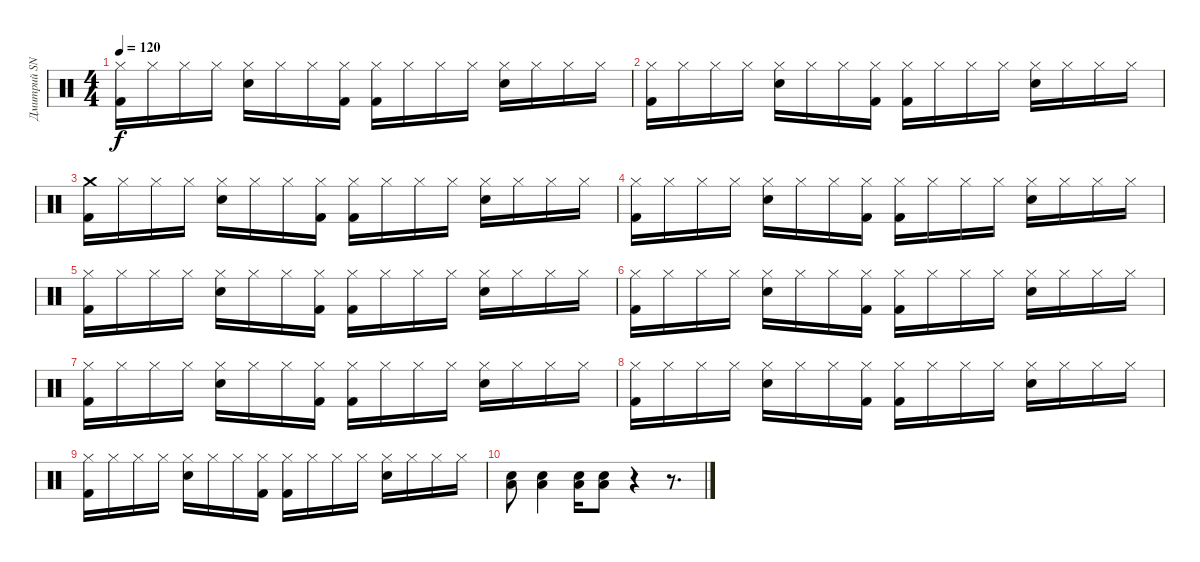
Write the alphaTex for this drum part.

\track ("Дмитрий SNAKE Хакимов" "Дмитрий SN") {instrument percussion}
\staff {score}
\articulation defaults
\ts (4 4)
\tempo 120
\clef neutral
\ks c
("Hi-Hat (closed)" "Kick (hit) 2").16{dy f} "Hi-Hat (closed)".16 "Hi-Hat (closed)".16 "Hi-Hat (closed)".16 ("Hi-Hat (closed)" "Snare (hit) 2").16 "Hi-Hat (closed)".16 "Hi-Hat (closed)".16 ("Hi-Hat (closed)" "Kick (hit) 2").16 ("Hi-Hat (closed)" "Kick (hit) 2").16 "Hi-Hat (closed)".16 "Hi-Hat (closed)".16 "Hi-Hat (closed)".16 ("Hi-Hat (closed)" "Snare (hit) 2").16 "Hi-Hat (closed)".16 "Hi-Hat (closed)".16 "Hi-Hat (closed)".16 |
("Hi-Hat (closed)" "Kick (hit) 2").16 "Hi-Hat (closed)".16 "Hi-Hat (closed)".16 "Hi-Hat (closed)".16 ("Hi-Hat (closed)" "Snare (hit) 2").16 "Hi-Hat (closed)".16 "Hi-Hat (closed)".16 ("Hi-Hat (closed)" "Kick (hit) 2").16 ("Hi-Hat (closed)" "Kick (hit) 2").16 "Hi-Hat (closed)".16 "Hi-Hat (closed)".16 "Hi-Hat (closed)".16 ("Hi-Hat (closed)" "Snare (hit) 2").16 "Hi-Hat (closed)".16 "Hi-Hat (closed)".16 "Hi-Hat (closed)".16 |
("Crash medium (hit)" "Kick (hit) 2").16 "Hi-Hat (closed)".16 "Hi-Hat (closed)".16 "Hi-Hat (closed)".16 ("Hi-Hat (closed)" "Snare (hit) 2").16 "Hi-Hat (closed)".16 "Hi-Hat (closed)".16 ("Hi-Hat (closed)" "Kick (hit) 2").16 ("Hi-Hat (closed)" "Kick (hit) 2").16 "Hi-Hat (closed)".16 "Hi-Hat (closed)".16 "Hi-Hat (closed)".16 ("Hi-Hat (closed)" "Snare (hit) 2").16 "Hi-Hat (closed)".16 "Hi-Hat (closed)".16 "Hi-Hat (closed)".16 |
("Hi-Hat (closed)" "Kick (hit) 2").16 "Hi-Hat (closed)".16 "Hi-Hat (closed)".16 "Hi-Hat (closed)".16 ("Hi-Hat (closed)" "Snare (hit) 2").16 "Hi-Hat (closed)".16 "Hi-Hat (closed)".16 ("Hi-Hat (closed)" "Kick (hit) 2").16 ("Hi-Hat (closed)" "Kick (hit) 2").16 "Hi-Hat (closed)".16 "Hi-Hat (closed)".16 "Hi-Hat (closed)".16 ("Hi-Hat (closed)" "Snare (hit) 2").16 "Hi-Hat (closed)".16 "Hi-Hat (closed)".16 "Hi-Hat (closed)".16 |
("Hi-Hat (closed)" "Kick (hit) 2").16 "Hi-Hat (closed)".16 "Hi-Hat (closed)".16 "Hi-Hat (closed)".16 ("Hi-Hat (closed)" "Snare (hit) 2").16 "Hi-Hat (closed)".16 "Hi-Hat (closed)".16 ("Hi-Hat (closed)" "Kick (hit) 2").16 ("Hi-Hat (closed)" "Kick (hit) 2").16 "Hi-Hat (closed)".16 "Hi-Hat (closed)".16 "Hi-Hat (closed)".16 ("Hi-Hat (closed)" "Snare (hit) 2").16 "Hi-Hat (closed)".16 "Hi-Hat (closed)".16 "Hi-Hat (closed)".16 |
("Hi-Hat (closed)" "Kick (hit) 2").16 "Hi-Hat (closed)".16 "Hi-Hat (closed)".16 "Hi-Hat (closed)".16 ("Hi-Hat (closed)" "Snare (hit) 2").16 "Hi-Hat (closed)".16 "Hi-Hat (closed)".16 ("Hi-Hat (closed)" "Kick (hit) 2").16 ("Hi-Hat (closed)" "Kick (hit) 2").16 "Hi-Hat (closed)".16 "Hi-Hat (closed)".16 "Hi-Hat (closed)".16 ("Hi-Hat (closed)" "Snare (hit) 2").16 "Hi-Hat (closed)".16 "Hi-Hat (closed)".16 "Hi-Hat (closed)".16 |
("Hi-Hat (closed)" "Kick (hit) 2").16 "Hi-Hat (closed)".16 "Hi-Hat (closed)".16 "Hi-Hat (closed)".16 ("Hi-Hat (closed)" "Snare (hit) 2").16 "Hi-Hat (closed)".16 "Hi-Hat (closed)".16 ("Hi-Hat (closed)" "Kick (hit) 2").16 ("Hi-Hat (closed)" "Kick (hit) 2").16 "Hi-Hat (closed)".16 "Hi-Hat (closed)".16 "Hi-Hat (closed)".16 ("Hi-Hat (closed)" "Snare (hit) 2").16 "Hi-Hat (closed)".16 "Hi-Hat (closed)".16 "Hi-Hat (closed)".16 |
("Hi-Hat (closed)" "Kick (hit) 2").16 "Hi-Hat (closed)".16 "Hi-Hat (closed)".16 "Hi-Hat (closed)".16 ("Hi-Hat (closed)" "Snare (hit) 2").16 "Hi-Hat (closed)".16 "Hi-Hat (closed)".16 ("Hi-Hat (closed)" "Kick (hit) 2").16 ("Hi-Hat (closed)" "Kick (hit) 2").16 "Hi-Hat (closed)".16 "Hi-Hat (closed)".16 "Hi-Hat (closed)".16 ("Hi-Hat (closed)" "Snare (hit) 2").16 "Hi-Hat (closed)".16 "Hi-Hat (closed)".16 "Hi-Hat (closed)".16 |
("Hi-Hat (closed)" "Kick (hit) 2").16 "Hi-Hat (closed)".16 "Hi-Hat (closed)".16 "Hi-Hat (closed)".16 ("Hi-Hat (closed)" "Snare (hit) 2").16 "Hi-Hat (closed)".16 "Hi-Hat (closed)".16 ("Hi-Hat (closed)" "Kick (hit) 2").16 ("Hi-Hat (closed)" "Kick (hit) 2").16 "Hi-Hat (closed)".16 "Hi-Hat (closed)".16 "Hi-Hat (closed)".16 ("Hi-Hat (closed)" "Snare (hit) 2").16 "Hi-Hat (closed)".16 "Hi-Hat (closed)".16 "Hi-Hat (closed)".16 |
("Snare (hit) 2" "Low Tom (hit)").8 ("Snare (hit) 2" "Low Tom (hit)").4 ("Snare (hit) 2" "Low Tom (hit)").16 ("Snare (hit) 2" "Low Tom (hit)").8 r.4 r.8{d}
